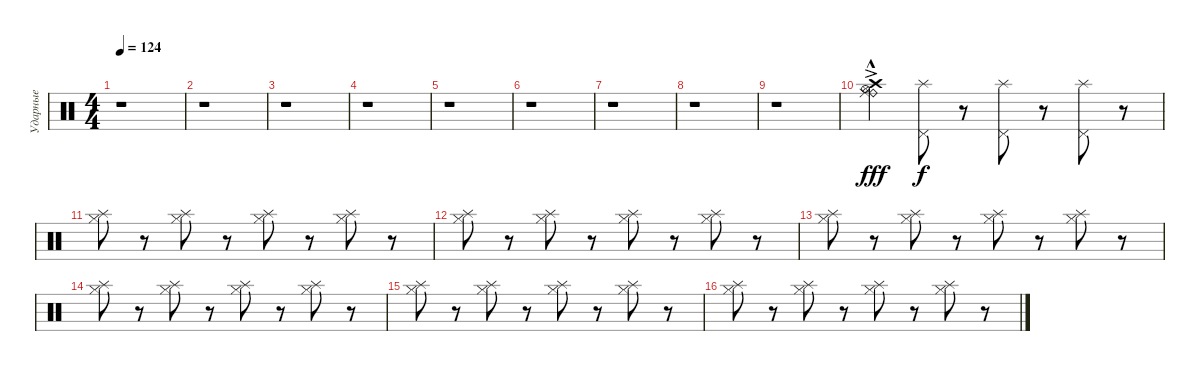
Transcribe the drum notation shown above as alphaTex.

\track ("Ударные" "Ударные") {instrument percussion}
\staff {score}
\articulation defaults
\ts (4 4)
\tempo 124
\clef neutral
\ks c
r.1{dy fff} |
r.1 |
r.1 |
r.1 |
r.1 |
r.1 |
r.1 |
r.1 |
r.1 |
("Ride (bell)"{ac} "Ride (middle)"{hac} "Crash high (hit)" "Hi-Hat (open)").4 ("Pedal Hi-Hat (hit)" "Splash (hit)").8{dy f} r.8 ("Pedal Hi-Hat (hit)" "Splash (hit)").8 r.8 ("Pedal Hi-Hat (hit)" "Splash (hit)").8 r.8 |
("Hi-Hat (closed)" "Splash (hit)").8 r.8 ("Hi-Hat (closed)" "Splash (hit)").8 r.8 ("Hi-Hat (closed)" "Splash (hit)").8 r.8 ("Hi-Hat (closed)" "Splash (hit)").8 r.8 |
("Hi-Hat (closed)" "Splash (hit)").8 r.8 ("Hi-Hat (closed)" "Splash (hit)").8 r.8 ("Hi-Hat (closed)" "Splash (hit)").8 r.8 ("Hi-Hat (closed)" "Splash (hit)").8 r.8 |
("Hi-Hat (closed)" "Splash (hit)").8 r.8 ("Hi-Hat (closed)" "Splash (hit)").8 r.8 ("Hi-Hat (closed)" "Splash (hit)").8 r.8 ("Hi-Hat (closed)" "Splash (hit)").8 r.8 |
("Hi-Hat (closed)" "Splash (hit)").8 r.8 ("Hi-Hat (closed)" "Splash (hit)").8 r.8 ("Hi-Hat (closed)" "Splash (hit)").8 r.8 ("Hi-Hat (closed)" "Splash (hit)").8 r.8 |
("Hi-Hat (closed)" "Splash (hit)").8 r.8 ("Hi-Hat (closed)" "Splash (hit)").8 r.8 ("Hi-Hat (closed)" "Splash (hit)").8 r.8 ("Hi-Hat (closed)" "Splash (hit)").8 r.8 |
("Hi-Hat (closed)" "Splash (hit)").8 r.8 ("Hi-Hat (closed)" "Splash (hit)").8 r.8 ("Hi-Hat (closed)" "Splash (hit)").8 r.8 ("Hi-Hat (closed)" "Splash (hit)").8 r.8
